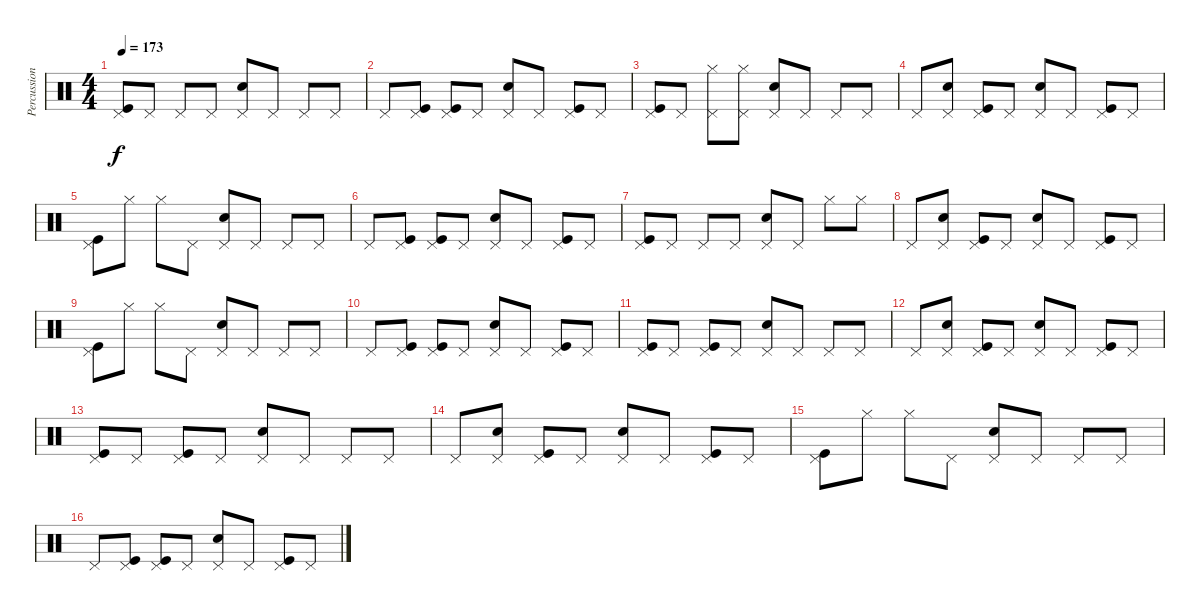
\track ("Percussion" "Percussion") {instrument percussion}
\staff {score}
\articulation defaults
\ts (4 4)
\tempo 173
\clef neutral
\ks c
("Kick (hit)" "Pedal Hi-Hat (hit)").8{dy f} "Pedal Hi-Hat (hit)".8 "Pedal Hi-Hat (hit)".8 "Pedal Hi-Hat (hit)".8 ("Snare (hit) 2" "Pedal Hi-Hat (hit)").8 "Pedal Hi-Hat (hit)".8 "Pedal Hi-Hat (hit)".8 "Pedal Hi-Hat (hit)".8 |
"Pedal Hi-Hat (hit)".8 ("Kick (hit)" "Pedal Hi-Hat (hit)").8 ("Kick (hit)" "Pedal Hi-Hat (hit)").8 "Pedal Hi-Hat (hit)".8 ("Snare (hit) 2" "Pedal Hi-Hat (hit)").8 "Pedal Hi-Hat (hit)".8 ("Kick (hit)" "Pedal Hi-Hat (hit)").8 "Pedal Hi-Hat (hit)".8 |
("Kick (hit)" "Pedal Hi-Hat (hit)").8 "Pedal Hi-Hat (hit)".8 ("Hi-Hat (closed)" "Pedal Hi-Hat (hit)").8 ("Hi-Hat (closed)" "Pedal Hi-Hat (hit)").8 ("Snare (hit) 2" "Pedal Hi-Hat (hit)").8 "Pedal Hi-Hat (hit)".8 "Pedal Hi-Hat (hit)".8 "Pedal Hi-Hat (hit)".8 |
"Pedal Hi-Hat (hit)".8 ("Snare (hit) 2" "Pedal Hi-Hat (hit)").8 ("Kick (hit)" "Pedal Hi-Hat (hit)").8 "Pedal Hi-Hat (hit)".8 ("Snare (hit) 2" "Pedal Hi-Hat (hit)").8 "Pedal Hi-Hat (hit)".8 ("Kick (hit)" "Pedal Hi-Hat (hit)").8 "Pedal Hi-Hat (hit)".8 |
("Kick (hit)" "Pedal Hi-Hat (hit)").8 "Hi-Hat (closed)".8 "Hi-Hat (closed)".8 "Pedal Hi-Hat (hit)".8 ("Snare (hit) 2" "Pedal Hi-Hat (hit)").8 "Pedal Hi-Hat (hit)".8 "Pedal Hi-Hat (hit)".8 "Pedal Hi-Hat (hit)".8 |
"Pedal Hi-Hat (hit)".8 ("Kick (hit)" "Pedal Hi-Hat (hit)").8 ("Kick (hit)" "Pedal Hi-Hat (hit)").8 "Pedal Hi-Hat (hit)".8 ("Snare (hit) 2" "Pedal Hi-Hat (hit)").8 "Pedal Hi-Hat (hit)".8 ("Kick (hit)" "Pedal Hi-Hat (hit)").8 "Pedal Hi-Hat (hit)".8 |
("Kick (hit)" "Pedal Hi-Hat (hit)").8 "Pedal Hi-Hat (hit)".8 "Pedal Hi-Hat (hit)".8 "Pedal Hi-Hat (hit)".8 ("Snare (hit) 2" "Pedal Hi-Hat (hit)").8 "Pedal Hi-Hat (hit)".8 "Hi-Hat (closed)".8 "Hi-Hat (closed)".8 |
"Pedal Hi-Hat (hit)".8 ("Snare (hit) 2" "Pedal Hi-Hat (hit)").8 ("Kick (hit)" "Pedal Hi-Hat (hit)").8 "Pedal Hi-Hat (hit)".8 ("Snare (hit) 2" "Pedal Hi-Hat (hit)").8 "Pedal Hi-Hat (hit)".8 ("Kick (hit)" "Pedal Hi-Hat (hit)").8 "Pedal Hi-Hat (hit)".8 |
("Kick (hit)" "Pedal Hi-Hat (hit)").8 "Hi-Hat (closed)".8 "Hi-Hat (closed)".8 "Pedal Hi-Hat (hit)".8 ("Snare (hit) 2" "Pedal Hi-Hat (hit)").8 "Pedal Hi-Hat (hit)".8 "Pedal Hi-Hat (hit)".8 "Pedal Hi-Hat (hit)".8 |
"Pedal Hi-Hat (hit)".8 ("Kick (hit)" "Pedal Hi-Hat (hit)").8 ("Kick (hit)" "Pedal Hi-Hat (hit)").8 "Pedal Hi-Hat (hit)".8 ("Snare (hit) 2" "Pedal Hi-Hat (hit)").8 "Pedal Hi-Hat (hit)".8 ("Kick (hit)" "Pedal Hi-Hat (hit)").8 "Pedal Hi-Hat (hit)".8 |
("Kick (hit)" "Pedal Hi-Hat (hit)").8 "Pedal Hi-Hat (hit)".8 ("Kick (hit)" "Pedal Hi-Hat (hit)").8 "Pedal Hi-Hat (hit)".8 ("Snare (hit) 2" "Pedal Hi-Hat (hit)").8 "Pedal Hi-Hat (hit)".8 "Pedal Hi-Hat (hit)".8 "Pedal Hi-Hat (hit)".8 |
"Pedal Hi-Hat (hit)".8 ("Snare (hit) 2" "Pedal Hi-Hat (hit)").8 ("Kick (hit)" "Pedal Hi-Hat (hit)").8 "Pedal Hi-Hat (hit)".8 ("Snare (hit) 2" "Pedal Hi-Hat (hit)").8 "Pedal Hi-Hat (hit)".8 ("Kick (hit)" "Pedal Hi-Hat (hit)").8 "Pedal Hi-Hat (hit)".8 |
("Kick (hit)" "Pedal Hi-Hat (hit)").8 "Pedal Hi-Hat (hit)".8 ("Kick (hit)" "Pedal Hi-Hat (hit)").8 "Pedal Hi-Hat (hit)".8 ("Snare (hit) 2" "Pedal Hi-Hat (hit)").8 "Pedal Hi-Hat (hit)".8 "Pedal Hi-Hat (hit)".8 "Pedal Hi-Hat (hit)".8 |
"Pedal Hi-Hat (hit)".8 ("Snare (hit) 2" "Pedal Hi-Hat (hit)").8 ("Kick (hit)" "Pedal Hi-Hat (hit)").8 "Pedal Hi-Hat (hit)".8 ("Snare (hit) 2" "Pedal Hi-Hat (hit)").8 "Pedal Hi-Hat (hit)".8 ("Kick (hit)" "Pedal Hi-Hat (hit)").8 "Pedal Hi-Hat (hit)".8 |
("Kick (hit)" "Pedal Hi-Hat (hit)").8 "Hi-Hat (closed)".8 "Hi-Hat (closed)".8 "Pedal Hi-Hat (hit)".8 ("Snare (hit) 2" "Pedal Hi-Hat (hit)").8 "Pedal Hi-Hat (hit)".8 "Pedal Hi-Hat (hit)".8 "Pedal Hi-Hat (hit)".8 |
"Pedal Hi-Hat (hit)".8 ("Kick (hit)" "Pedal Hi-Hat (hit)").8 ("Kick (hit)" "Pedal Hi-Hat (hit)").8 "Pedal Hi-Hat (hit)".8 ("Snare (hit) 2" "Pedal Hi-Hat (hit)").8 "Pedal Hi-Hat (hit)".8 ("Kick (hit)" "Pedal Hi-Hat (hit)").8 "Pedal Hi-Hat (hit)".8
